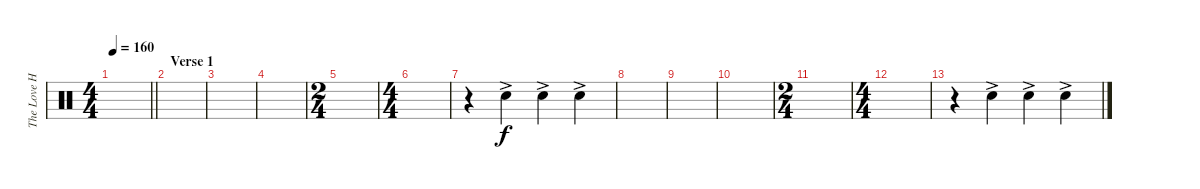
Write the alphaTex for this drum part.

\track ("The Love Haters (Hand Clap)(Drums)" "The Love H") {instrument percussion}
\staff {score}
\articulation defaults
\ts (4 4)
\tempo 160
\clef neutral
\barLineRight lightlight
\ks c
|
\section ("" "Verse 1")
|
|
|
\ts (2 4)
|
\ts (4 4)
|
r.4 "Hand Clap (hit)"{ac}.4 "Hand Clap (hit)"{ac}.4 "Hand Clap (hit)"{ac}.4 |
|
|
|
\ts (2 4)
|
\ts (4 4)
|
r.4 "Hand Clap (hit)"{ac}.4 "Hand Clap (hit)"{ac}.4 "Hand Clap (hit)"{ac}.4
